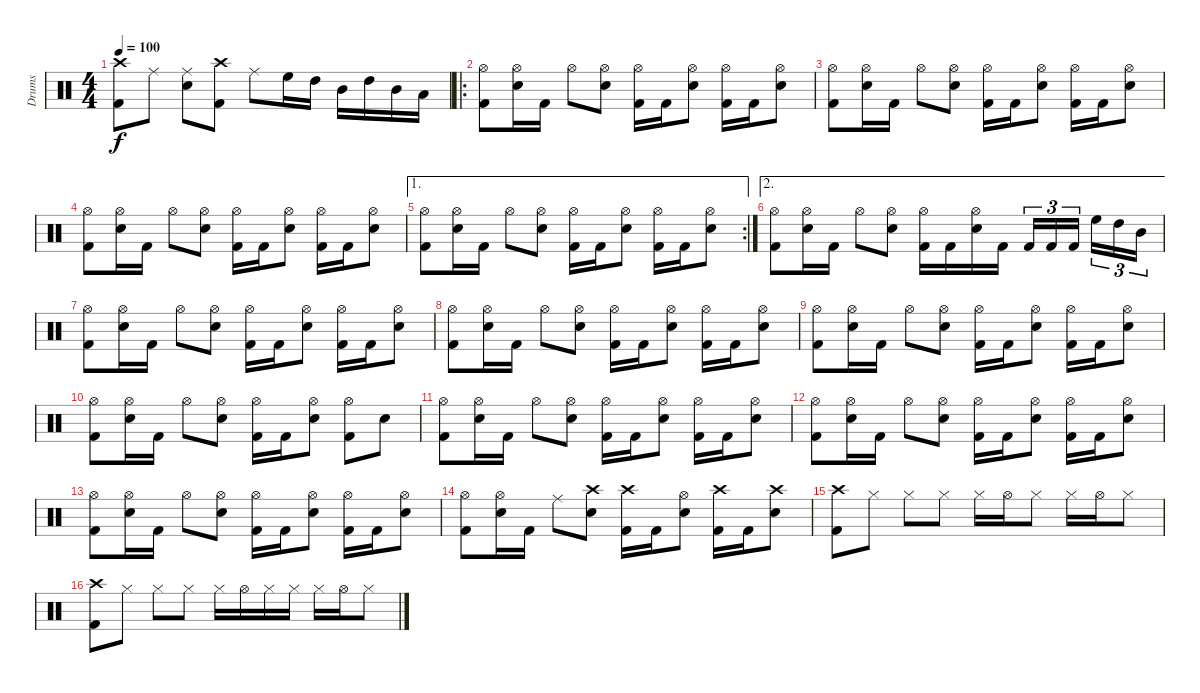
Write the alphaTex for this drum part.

\track ("Drums" "Drums") {instrument percussion}
\staff {score}
\articulation defaults
\ts (4 4)
\tempo 100
\clef neutral
\ks c
("Crash high (hit)" "Kick (hit) 2").8{dy f} "Ride (middle)".8 ("Ride (middle)" "Snare (hit) 2").8 ("Crash high (hit)" "Kick (hit) 2").8 "Ride (middle)".8 "High Floor Tom (hit)".16 "High Tom (hit)".16 "Mid Tom (hit)".16 "High Tom (hit)".16 "Mid Tom (hit)".16 "Low Tom (hit)".16 |
\ro
("Hi-Hat (open)" "Kick (hit) 2").8 ("Hi-Hat (open)" "Snare (hit) 2").16 "Kick (hit) 2".16 "Hi-Hat (open)".8 ("Hi-Hat (open)" "Snare (hit) 2").8 ("Hi-Hat (open)" "Kick (hit) 2").16 "Kick (hit) 2".16 ("Hi-Hat (open)" "Snare (hit) 2").8 ("Hi-Hat (open)" "Kick (hit) 2").16 "Kick (hit) 2".16 ("Hi-Hat (open)" "Snare (hit) 2").8 |
("Hi-Hat (open)" "Kick (hit) 2").8 ("Hi-Hat (open)" "Snare (hit) 2").16 "Kick (hit) 2".16 "Hi-Hat (open)".8 ("Hi-Hat (open)" "Snare (hit) 2").8 ("Hi-Hat (open)" "Kick (hit) 2").16 "Kick (hit) 2".16 ("Hi-Hat (open)" "Snare (hit) 2").8 ("Hi-Hat (open)" "Kick (hit) 2").16 "Kick (hit) 2".16 ("Hi-Hat (open)" "Snare (hit) 2").8 |
("Hi-Hat (open)" "Kick (hit) 2").8 ("Hi-Hat (open)" "Snare (hit) 2").16 "Kick (hit) 2".16 "Hi-Hat (open)".8 ("Hi-Hat (open)" "Snare (hit) 2").8 ("Hi-Hat (open)" "Kick (hit) 2").16 "Kick (hit) 2".16 ("Hi-Hat (open)" "Snare (hit) 2").8 ("Hi-Hat (open)" "Kick (hit) 2").16 "Kick (hit) 2".16 ("Hi-Hat (open)" "Snare (hit) 2").8 |
\ae 1
\rc 2
("Hi-Hat (open)" "Kick (hit) 2").8 ("Hi-Hat (open)" "Snare (hit) 2").16 "Kick (hit) 2".16 "Hi-Hat (open)".8 ("Hi-Hat (open)" "Snare (hit) 2").8 ("Hi-Hat (open)" "Kick (hit) 2").16 "Kick (hit) 2".16 ("Hi-Hat (open)" "Snare (hit) 2").8 ("Hi-Hat (open)" "Kick (hit) 2").16 "Kick (hit) 2".16 ("Hi-Hat (open)" "Snare (hit) 2").8 |
\ae 2
("Hi-Hat (open)" "Kick (hit) 2").8 ("Hi-Hat (open)" "Snare (hit) 2").16 "Kick (hit) 2".16 "Hi-Hat (open)".8 ("Hi-Hat (open)" "Snare (hit) 2").8 ("Hi-Hat (open)" "Kick (hit) 2").16 "Kick (hit) 2".16 ("Hi-Hat (open)" "Snare (hit) 2").16 "Kick (hit) 2".16 "Kick (hit) 2".16{tu (3 2)} "Kick (hit) 2".16{tu (3 2)} "Kick (hit) 2".16{tu (3 2)} "High Floor Tom (hit)".16{tu (3 2)} "High Tom (hit)".16{tu (3 2)} "Mid Tom (hit)".16{tu (3 2)} |
("Hi-Hat (open)" "Kick (hit) 2").8 ("Hi-Hat (open)" "Snare (hit) 2").16 "Kick (hit) 2".16 "Hi-Hat (open)".8 ("Hi-Hat (open)" "Snare (hit) 2").8 ("Hi-Hat (open)" "Kick (hit) 2").16 "Kick (hit) 2".16 ("Hi-Hat (open)" "Snare (hit) 2").8 ("Hi-Hat (open)" "Kick (hit) 2").16 "Kick (hit) 2".16 ("Hi-Hat (open)" "Snare (hit) 2").8 |
("Hi-Hat (open)" "Kick (hit) 2").8 ("Hi-Hat (open)" "Snare (hit) 2").16 "Kick (hit) 2".16 "Hi-Hat (open)".8 ("Hi-Hat (open)" "Snare (hit) 2").8 ("Hi-Hat (open)" "Kick (hit) 2").16 "Kick (hit) 2".16 ("Hi-Hat (open)" "Snare (hit) 2").8 ("Hi-Hat (open)" "Kick (hit) 2").16 "Kick (hit) 2".16 ("Hi-Hat (open)" "Snare (hit) 2").8 |
("Hi-Hat (open)" "Kick (hit) 2").8 ("Hi-Hat (open)" "Snare (hit) 2").16 "Kick (hit) 2".16 "Hi-Hat (open)".8 ("Hi-Hat (open)" "Snare (hit) 2").8 ("Hi-Hat (open)" "Kick (hit) 2").16 "Kick (hit) 2".16 ("Hi-Hat (open)" "Snare (hit) 2").8 ("Hi-Hat (open)" "Kick (hit) 2").16 "Kick (hit) 2".16 ("Hi-Hat (open)" "Snare (hit) 2").8 |
("Hi-Hat (open)" "Kick (hit) 2").8 ("Hi-Hat (open)" "Snare (hit) 2").16 "Kick (hit) 2".16 "Hi-Hat (open)".8 ("Hi-Hat (open)" "Snare (hit) 2").8 ("Hi-Hat (open)" "Kick (hit) 2").16 "Kick (hit) 2".16 ("Hi-Hat (open)" "Snare (hit) 2").8 ("Hi-Hat (open)" "Kick (hit) 2").8 "Snare (hit) 2".8 |
("Hi-Hat (open)" "Kick (hit) 2").8 ("Hi-Hat (open)" "Snare (hit) 2").16 "Kick (hit) 2".16 "Hi-Hat (open)".8 ("Hi-Hat (open)" "Snare (hit) 2").8 ("Hi-Hat (open)" "Kick (hit) 2").16 "Kick (hit) 2".16 ("Hi-Hat (open)" "Snare (hit) 2").8 ("Hi-Hat (open)" "Kick (hit) 2").16 "Kick (hit) 2".16 ("Hi-Hat (open)" "Snare (hit) 2").8 |
("Hi-Hat (open)" "Kick (hit) 2").8 ("Hi-Hat (open)" "Snare (hit) 2").16 "Kick (hit) 2".16 "Hi-Hat (open)".8 ("Hi-Hat (open)" "Snare (hit) 2").8 ("Hi-Hat (open)" "Kick (hit) 2").16 "Kick (hit) 2".16 ("Hi-Hat (open)" "Snare (hit) 2").8 ("Hi-Hat (open)" "Kick (hit) 2").16 "Kick (hit) 2".16 ("Hi-Hat (open)" "Snare (hit) 2").8 |
("Hi-Hat (open)" "Kick (hit) 2").8 ("Hi-Hat (open)" "Snare (hit) 2").16 "Kick (hit) 2".16 "Hi-Hat (open)".8 ("Hi-Hat (open)" "Snare (hit) 2").8 ("Hi-Hat (open)" "Kick (hit) 2").16 "Kick (hit) 2".16 ("Hi-Hat (open)" "Snare (hit) 2").8 ("Hi-Hat (open)" "Kick (hit) 2").16 "Kick (hit) 2".16 ("Hi-Hat (open)" "Snare (hit) 2").8 |
("Hi-Hat (open)" "Kick (hit) 2").8 ("Hi-Hat (open)" "Snare (hit) 2").16 "Kick (hit) 2".16 "Ride (middle)".8 ("Crash high (hit)" "Snare (hit) 2").8 ("Crash high (hit)" "Kick (hit) 2").16 "Kick (hit) 2".16 ("Hi-Hat (open)" "Snare (hit) 2").8 ("Crash high (hit)" "Kick (hit) 2").16 "Kick (hit) 2".16 ("Crash high (hit)" "Snare (hit) 2").8 |
("Crash high (hit)" "Kick (hit) 2").8 "Hi-Hat (closed)".8 "Hi-Hat (closed)".8 "Hi-Hat (closed)".8 "Hi-Hat (closed)".16 "Hi-Hat (open)".16 "Hi-Hat (closed)".8 "Hi-Hat (closed)".16 "Hi-Hat (open)".16 "Hi-Hat (closed)".8 |
("Crash high (hit)" "Kick (hit) 2").8 "Hi-Hat (closed)".8 "Hi-Hat (closed)".8 "Hi-Hat (closed)".8 "Hi-Hat (closed)".16 "Hi-Hat (open)".16 "Hi-Hat (closed)".16 "Hi-Hat (closed)".16 "Hi-Hat (closed)".16 "Hi-Hat (open)".16 "Hi-Hat (closed)".8
